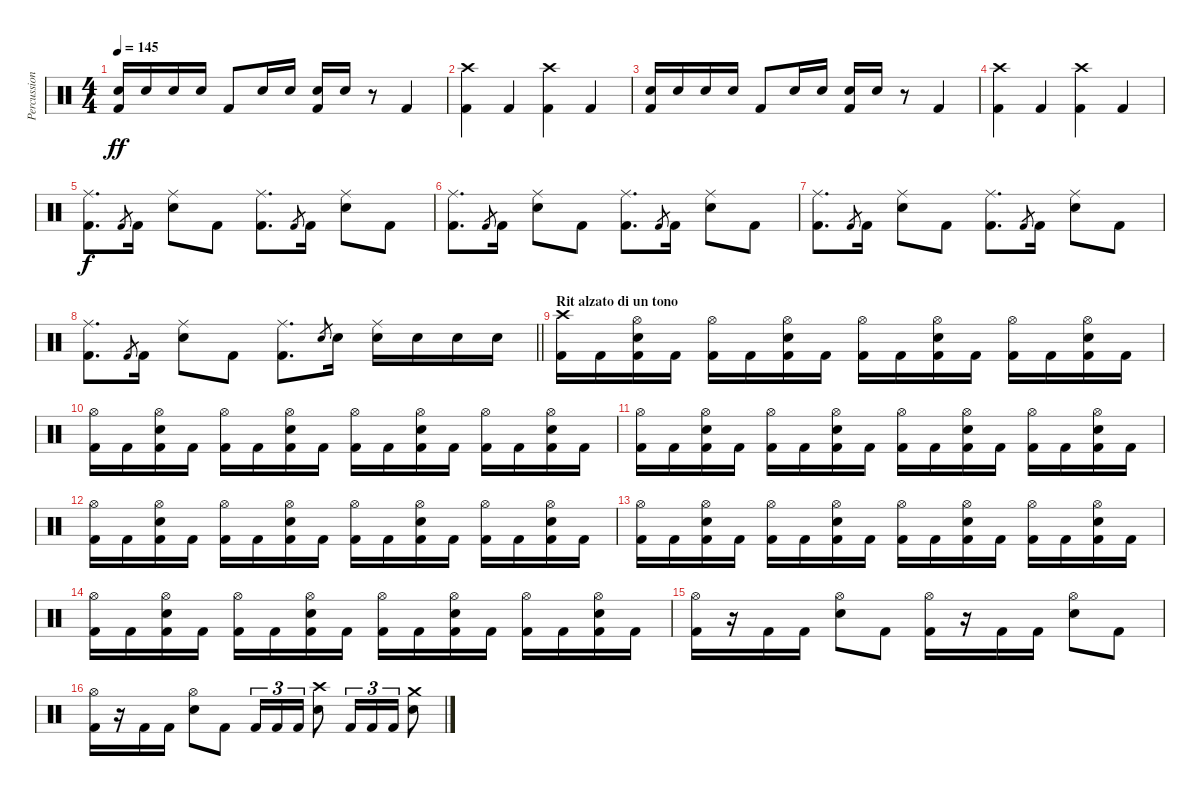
\track ("Percussioni" "Percussion") {instrument percussion}
\staff {score}
\articulation defaults
\ts (4 4)
\tempo 145
\clef neutral
\ks c
("Kick (hit) 2" "Snare (hit) 2").16{dy ff} "Snare (hit) 2".16 "Snare (hit) 2".16 "Snare (hit) 2".16 "Kick (hit) 2".8 "Snare (hit) 2".16 "Snare (hit) 2".16 ("Kick (hit) 2" "Snare (hit) 2").16 "Snare (hit) 2".16 r.8 "Kick (hit) 2".4 |
("Crash high (hit)" "Kick (hit) 2").4 "Kick (hit) 2".4 ("Crash high (hit)" "Kick (hit) 2").4 "Kick (hit) 2".4 |
("Kick (hit) 2" "Snare (hit) 2").16 "Snare (hit) 2".16 "Snare (hit) 2".16 "Snare (hit) 2".16 "Kick (hit) 2".8 "Snare (hit) 2".16 "Snare (hit) 2".16 ("Kick (hit) 2" "Snare (hit) 2").16 "Snare (hit) 2".16 r.8 "Kick (hit) 2".4 |
("Crash high (hit)" "Kick (hit) 2").4 "Kick (hit) 2".4 ("Crash high (hit)" "Kick (hit) 2").4 "Kick (hit) 2".4 |
("Ride (middle)" "Kick (hit) 2").8{d dy f} "Kick (hit) 2".8{gr} "Kick (hit) 2".16 ("Ride (middle)" "Snare (hit) 2").8 "Kick (hit) 2".8 ("Ride (middle)" "Kick (hit) 2").8{d} "Kick (hit) 2".8{gr} "Kick (hit) 2".16 ("Ride (middle)" "Snare (hit) 2").8 "Kick (hit) 2".8 |
("Ride (middle)" "Kick (hit) 2").8{d} "Kick (hit) 2".8{gr} "Kick (hit) 2".16 ("Ride (middle)" "Snare (hit) 2").8 "Kick (hit) 2".8 ("Ride (middle)" "Kick (hit) 2").8{d} "Kick (hit) 2".8{gr} "Kick (hit) 2".16 ("Ride (middle)" "Snare (hit) 2").8 "Kick (hit) 2".8 |
("Ride (middle)" "Kick (hit) 2").8{d} "Kick (hit) 2".8{gr} "Kick (hit) 2".16 ("Ride (middle)" "Snare (hit) 2").8 "Kick (hit) 2".8 ("Ride (middle)" "Kick (hit) 2").8{d} "Kick (hit) 2".8{gr} "Kick (hit) 2".16 ("Ride (middle)" "Snare (hit) 2").8 "Kick (hit) 2".8 |
\barLineRight lightlight
("Ride (middle)" "Kick (hit) 2").8{d} "Kick (hit) 2".8{gr} "Kick (hit) 2".16 ("Ride (middle)" "Snare (hit) 2").8 "Kick (hit) 2".8 ("Ride (middle)" "Kick (hit) 2").8{d} "Snare (hit) 2".8{gr} "Snare (hit) 2".16 ("Ride (middle)" "Snare (hit) 2").16 "Snare (hit) 2".16 "Snare (hit) 2".16 "Snare (hit) 2".16 |
\section ("" "Rit alzato di un tono")
("Crash high (hit)" "Kick (hit) 2").16 "Kick (hit) 2".16 ("Hi-Hat (open)" "Kick (hit) 2" "Snare (hit) 2").16 "Kick (hit) 2".16 ("Hi-Hat (open)" "Kick (hit) 2").16 "Kick (hit) 2".16 ("Hi-Hat (open)" "Kick (hit) 2" "Snare (hit) 2").16 "Kick (hit) 2".16 ("Hi-Hat (open)" "Kick (hit) 2").16 "Kick (hit) 2".16 ("Hi-Hat (open)" "Kick (hit) 2" "Snare (hit) 2").16 "Kick (hit) 2".16 ("Hi-Hat (open)" "Kick (hit) 2").16 "Kick (hit) 2".16 ("Hi-Hat (open)" "Kick (hit) 2" "Snare (hit) 2").16 "Kick (hit) 2".16 |
("Hi-Hat (open)" "Kick (hit) 2").16 "Kick (hit) 2".16 ("Hi-Hat (open)" "Kick (hit) 2" "Snare (hit) 2").16 "Kick (hit) 2".16 ("Hi-Hat (open)" "Kick (hit) 2").16 "Kick (hit) 2".16 ("Hi-Hat (open)" "Kick (hit) 2" "Snare (hit) 2").16 "Kick (hit) 2".16 ("Hi-Hat (open)" "Kick (hit) 2").16 "Kick (hit) 2".16 ("Hi-Hat (open)" "Kick (hit) 2" "Snare (hit) 2").16 "Kick (hit) 2".16 ("Hi-Hat (open)" "Kick (hit) 2").16 "Kick (hit) 2".16 ("Hi-Hat (open)" "Kick (hit) 2" "Snare (hit) 2").16 "Kick (hit) 2".16 |
("Hi-Hat (open)" "Kick (hit) 2").16 "Kick (hit) 2".16 ("Hi-Hat (open)" "Kick (hit) 2" "Snare (hit) 2").16 "Kick (hit) 2".16 ("Hi-Hat (open)" "Kick (hit) 2").16 "Kick (hit) 2".16 ("Hi-Hat (open)" "Kick (hit) 2" "Snare (hit) 2").16 "Kick (hit) 2".16 ("Hi-Hat (open)" "Kick (hit) 2").16 "Kick (hit) 2".16 ("Hi-Hat (open)" "Kick (hit) 2" "Snare (hit) 2").16 "Kick (hit) 2".16 ("Hi-Hat (open)" "Kick (hit) 2").16 "Kick (hit) 2".16 ("Hi-Hat (open)" "Kick (hit) 2" "Snare (hit) 2").16 "Kick (hit) 2".16 |
("Hi-Hat (open)" "Kick (hit) 2").16 "Kick (hit) 2".16 ("Hi-Hat (open)" "Kick (hit) 2" "Snare (hit) 2").16 "Kick (hit) 2".16 ("Hi-Hat (open)" "Kick (hit) 2").16 "Kick (hit) 2".16 ("Hi-Hat (open)" "Kick (hit) 2" "Snare (hit) 2").16 "Kick (hit) 2".16 ("Hi-Hat (open)" "Kick (hit) 2").16 "Kick (hit) 2".16 ("Hi-Hat (open)" "Kick (hit) 2" "Snare (hit) 2").16 "Kick (hit) 2".16 ("Hi-Hat (open)" "Kick (hit) 2").16 "Kick (hit) 2".16 ("Hi-Hat (open)" "Kick (hit) 2" "Snare (hit) 2").16 "Kick (hit) 2".16 |
("Hi-Hat (open)" "Kick (hit) 2").16 "Kick (hit) 2".16 ("Hi-Hat (open)" "Kick (hit) 2" "Snare (hit) 2").16 "Kick (hit) 2".16 ("Hi-Hat (open)" "Kick (hit) 2").16 "Kick (hit) 2".16 ("Hi-Hat (open)" "Kick (hit) 2" "Snare (hit) 2").16 "Kick (hit) 2".16 ("Hi-Hat (open)" "Kick (hit) 2").16 "Kick (hit) 2".16 ("Hi-Hat (open)" "Kick (hit) 2" "Snare (hit) 2").16 "Kick (hit) 2".16 ("Hi-Hat (open)" "Kick (hit) 2").16 "Kick (hit) 2".16 ("Hi-Hat (open)" "Kick (hit) 2" "Snare (hit) 2").16 "Kick (hit) 2".16 |
("Hi-Hat (open)" "Kick (hit) 2").16 "Kick (hit) 2".16 ("Hi-Hat (open)" "Kick (hit) 2" "Snare (hit) 2").16 "Kick (hit) 2".16 ("Hi-Hat (open)" "Kick (hit) 2").16 "Kick (hit) 2".16 ("Hi-Hat (open)" "Kick (hit) 2" "Snare (hit) 2").16 "Kick (hit) 2".16 ("Hi-Hat (open)" "Kick (hit) 2").16 "Kick (hit) 2".16 ("Hi-Hat (open)" "Kick (hit) 2" "Snare (hit) 2").16 "Kick (hit) 2".16 ("Hi-Hat (open)" "Kick (hit) 2").16 "Kick (hit) 2".16 ("Hi-Hat (open)" "Kick (hit) 2" "Snare (hit) 2").16 "Kick (hit) 2".16 |
("Hi-Hat (open)" "Kick (hit) 2").16 r.16 "Kick (hit) 2".16 "Kick (hit) 2".16 ("Hi-Hat (open)" "Snare (hit) 2").8 "Kick (hit) 2".8 ("Hi-Hat (open)" "Kick (hit) 2").16 r.16 "Kick (hit) 2".16 "Kick (hit) 2".16 ("Hi-Hat (open)" "Snare (hit) 2").8 "Kick (hit) 2".8 |
("Hi-Hat (open)" "Kick (hit) 2").16 r.16 "Kick (hit) 2".16 "Kick (hit) 2".16 ("Hi-Hat (open)" "Snare (hit) 2").8 "Kick (hit) 2".8 "Kick (hit) 2".16{tu (3 2)} "Kick (hit) 2".16{tu (3 2)} "Kick (hit) 2".16{tu (3 2)} ("Crash high (hit)" "Snare (hit) 2").8 "Kick (hit) 2".16{tu (3 2)} "Kick (hit) 2".16{tu (3 2)} "Kick (hit) 2".16{tu (3 2)} ("Crash medium (hit)" "Snare (hit) 2").8
